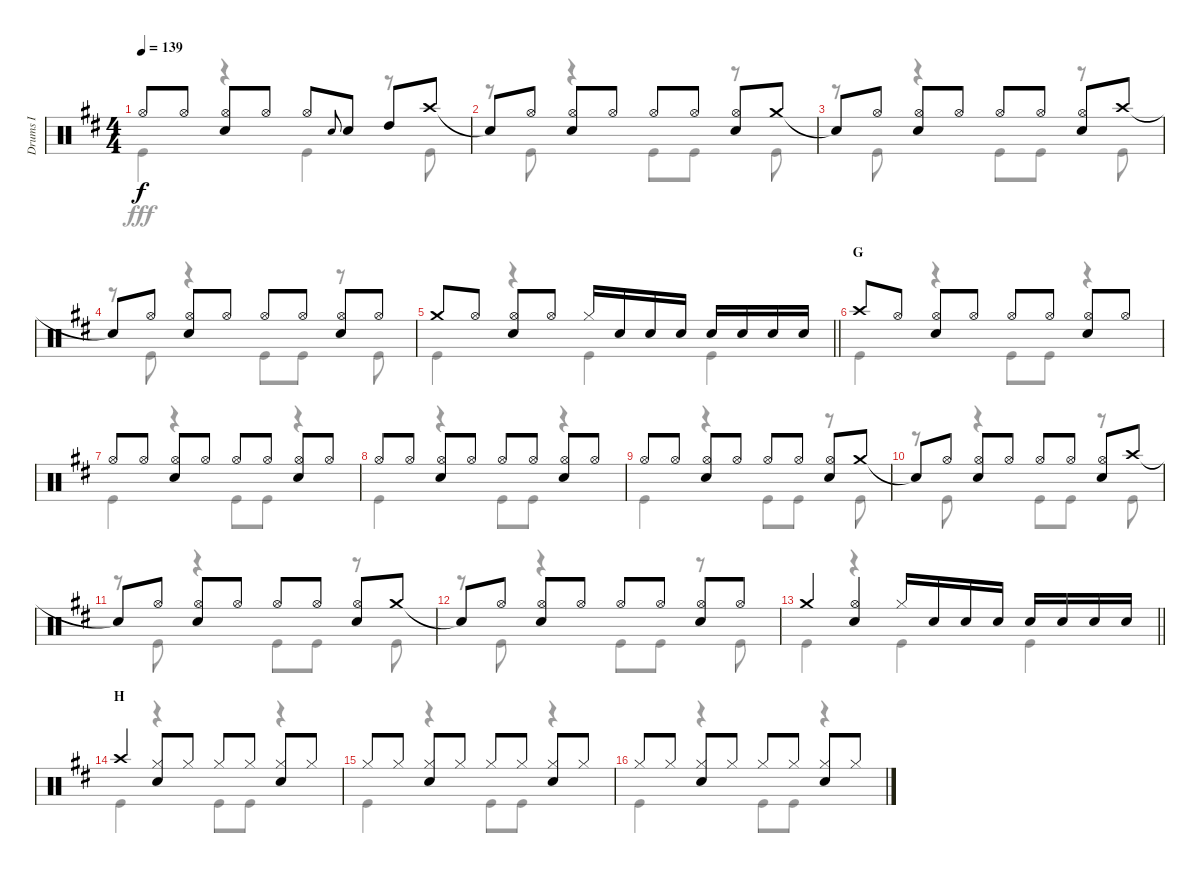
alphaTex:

\track ("Drums I" "Drums I") {instrument percussion}
\staff {score}
\articulation defaults
\voice
\ts (4 4)
\tempo 139
\clef neutral
\ks d "Hi-Hat (open)".8{dy f} "Hi-Hat (open)".8
("Hi-Hat (open)" "Snare (hit) 2").8 "Hi-Hat (open)".8 "Hi-Hat (open)".8 "Snare (hit) 2".8{gr onbeat} "Snare (hit) 2".8 "High Tom (hit)".8 "Crash high (hit)".8 |
"Snare (hit)"{t}.8 "Hi-Hat (open)".8 ("Hi-Hat (open)" "Snare (hit) 2").8 "Hi-Hat (open)".8 "Hi-Hat (open)".8 "Hi-Hat (open)".8 ("Hi-Hat (open)" "Snare (hit) 2").8 "Crash medium (hit)".8 |
"Snare (hit)"{t}.8 "Hi-Hat (open)".8 ("Hi-Hat (open)" "Snare (hit) 2").8 "Hi-Hat (open)".8 "Hi-Hat (open)".8 "Hi-Hat (open)".8 ("Hi-Hat (open)" "Snare (hit) 2").8 "Crash high (hit)".8 |
"Snare (hit)"{t}.8 "Hi-Hat (open)".8 ("Hi-Hat (open)" "Snare (hit) 2").8 "Hi-Hat (open)".8 "Hi-Hat (open)".8 "Hi-Hat (open)".8 ("Hi-Hat (open)" "Snare (hit) 2").8 "Hi-Hat (open)".8 |
\barLineRight lightlight "Crash medium (hit)".8 "Hi-Hat (open)".8
("Hi-Hat (open)" "Snare (hit) 2").8 "Hi-Hat (open)".8 "Hi-Hat (closed)".16 "Snare (hit) 2".16 "Snare (hit) 2".16 "Snare (hit) 2".16 "Snare (hit) 2".16 "Snare (hit) 2".16 "Snare (hit) 2".16 "Snare (hit) 2".16 |
\section ("" "G")
"Crash high (hit)".8 "Hi-Hat (open)".8 ("Hi-Hat (open)" "Snare (hit) 2").8 "Hi-Hat (open)".8 "Hi-Hat (open)".8 "Hi-Hat (open)".8 ("Hi-Hat (open)" "Snare (hit) 2").8 "Hi-Hat (open)".8 |
"Hi-Hat (open)".8 "Hi-Hat (open)".8 ("Hi-Hat (open)" "Snare (hit) 2").8 "Hi-Hat (open)".8 "Hi-Hat (open)".8 "Hi-Hat (open)".8 ("Hi-Hat (open)" "Snare (hit) 2").8 "Hi-Hat (open)".8 |
"Hi-Hat (open)".8 "Hi-Hat (open)".8 ("Hi-Hat (open)" "Snare (hit) 2").8 "Hi-Hat (open)".8 "Hi-Hat (open)".8 "Hi-Hat (open)".8 ("Hi-Hat (open)" "Snare (hit) 2").8 "Hi-Hat (open)".8 |
"Hi-Hat (open)".8 "Hi-Hat (open)".8 ("Hi-Hat (open)" "Snare (hit) 2").8 "Hi-Hat (open)".8 "Hi-Hat (open)".8 "Hi-Hat (open)".8 ("Hi-Hat (open)" "Snare (hit) 2").8 "Crash medium (hit)".8 |
"Snare (hit)"{t}.8 "Hi-Hat (open)".8 ("Hi-Hat (open)" "Snare (hit) 2").8 "Hi-Hat (open)".8 "Hi-Hat (open)".8 "Hi-Hat (open)".8 ("Hi-Hat (open)" "Snare (hit) 2").8 "Crash high (hit)".8 |
"Snare (hit)"{t}.8 "Hi-Hat (open)".8 ("Hi-Hat (open)" "Snare (hit) 2").8 "Hi-Hat (open)".8 "Hi-Hat (open)".8 "Hi-Hat (open)".8 ("Hi-Hat (open)" "Snare (hit) 2").8 "Crash medium (hit)".8 |
"Snare (hit)"{t}.8 "Hi-Hat (open)".8 ("Hi-Hat (open)" "Snare (hit) 2").8 "Hi-Hat (open)".8 "Hi-Hat (open)".8 "Hi-Hat (open)".8 ("Hi-Hat (open)" "Snare (hit) 2").8 "Hi-Hat (open)".8 |
\barLineRight lightlight "Crash medium (hit)".4
("Hi-Hat (open)" "Snare (hit) 2").4 "Hi-Hat (closed)".16 "Snare (hit) 2".16 "Snare (hit) 2".16 "Snare (hit) 2".16 "Snare (hit) 2".16 "Snare (hit) 2".16 "Snare (hit) 2".16 "Snare (hit) 2".16 |
\section ("" "H")
"Crash high (hit)".4 ("Hi-Hat (closed)" "Snare (hit) 2").8 "Hi-Hat (closed)".8 "Hi-Hat (closed)".8 "Hi-Hat (closed)".8 ("Hi-Hat (closed)" "Snare (hit) 2").8 "Hi-Hat (closed)".8 |
"Hi-Hat (closed)".8 "Hi-Hat (closed)".8 ("Hi-Hat (closed)" "Snare (hit) 2").8 "Hi-Hat (closed)".8 "Hi-Hat (closed)".8 "Hi-Hat (closed)".8 ("Hi-Hat (closed)" "Snare (hit) 2").8 "Hi-Hat (closed)".8 |
"Hi-Hat (closed)".8 "Hi-Hat (closed)".8 ("Hi-Hat (closed)" "Snare (hit) 2").8 "Hi-Hat (closed)".8 "Hi-Hat (closed)".8 "Hi-Hat (closed)".8 ("Hi-Hat (closed)" "Snare (hit) 2").8 "Hi-Hat (closed)".8
\voice
\clef neutral
\ottava regular
\simile none
\ks d "Kick (hit)".4{dy fff}
r.4 "Kick (hit)".4 r.8 "Kick (hit)".8 |
r.8 "Kick (hit)".8 r.4 "Kick (hit)".8 "Kick (hit)".8 r.8 "Kick (hit)".8 |
r.8 "Kick (hit)".8 r.4 "Kick (hit)".8 "Kick (hit)".8 r.8 "Kick (hit)".8 |
r.8 "Kick (hit)".8 r.4 "Kick (hit)".8 "Kick (hit)".8 r.8 "Kick (hit)".8 |
\barLineRight lightlight "Kick (hit)".4
r.4 "Kick (hit)".4 "Kick (hit)".4 |
"Kick (hit)".4 r.4 "Kick (hit)".8 "Kick (hit)".8 r.4 |
"Kick (hit)".4 r.4 "Kick (hit)".8 "Kick (hit)".8 r.4 |
"Kick (hit)".4 r.4 "Kick (hit)".8 "Kick (hit)".8 r.4 |
"Kick (hit)".4 r.4 "Kick (hit)".8 "Kick (hit)".8 r.8 "Kick (hit)".8 |
r.8 "Kick (hit)".8 r.4 "Kick (hit)".8 "Kick (hit)".8 r.8 "Kick (hit)".8 |
r.8 "Kick (hit)".8 r.4 "Kick (hit)".8 "Kick (hit)".8 r.8 "Kick (hit)".8 |
r.8 "Kick (hit)".8 r.4 "Kick (hit)".8 "Kick (hit)".8 r.8 "Kick (hit)".8 |
\barLineRight lightlight "Kick (hit)".4
r.4 "Kick (hit)".4 "Kick (hit)".4 |
"Kick (hit)".4 r.4 "Kick (hit)".8 "Kick (hit)".8 r.4 |
"Kick (hit)".4 r.4 "Kick (hit)".8 "Kick (hit)".8 r.4 |
"Kick (hit)".4 r.4 "Kick (hit)".8 "Kick (hit)".8 r.4
